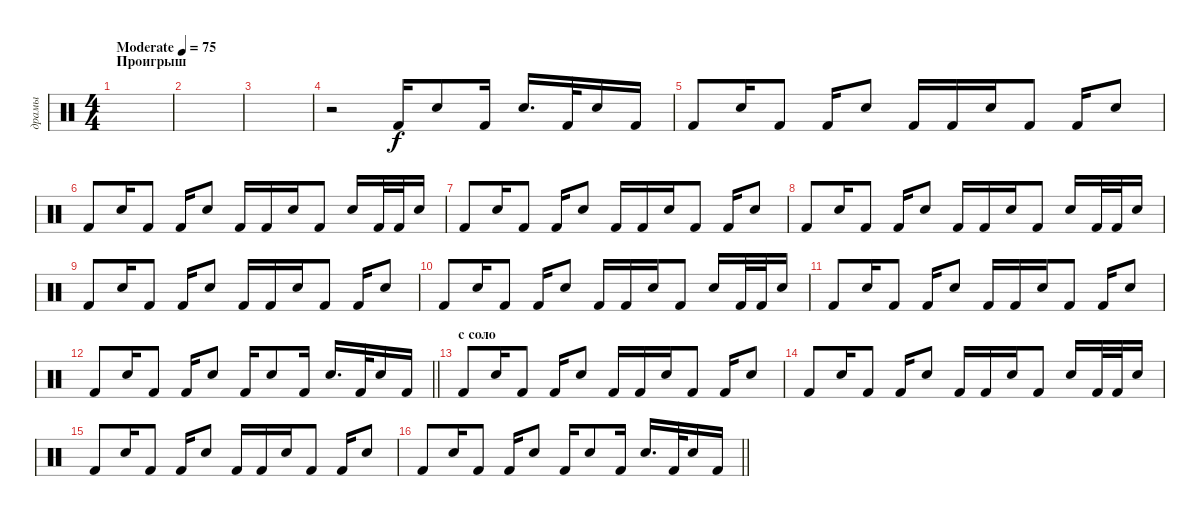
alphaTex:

\track ("драмы" "драмы") {instrument percussion}
\staff {score}
\articulation defaults
\ts (4 4)
\section ("" "Проигрыш")
\tempo (75 "Moderate")
\clef neutral
\ks c
|
|
|
r.2 "Kick (hit) 2".16 "Electric Snare (hit)".8 "Kick (hit) 2".16 "Electric Snare (hit)".16{d} "Kick (hit) 2".32 "Electric Snare (hit)".16 "Kick (hit) 2".16 |
"Kick (hit) 2".8 "Electric Snare (hit)".16 "Kick (hit) 2".8 "Kick (hit) 2".16 "Electric Snare (hit)".8 "Kick (hit) 2".16 "Kick (hit) 2".16 "Electric Snare (hit)".16 "Kick (hit) 2".8 "Kick (hit) 2".16 "Electric Snare (hit)".8 |
"Kick (hit) 2".8 "Electric Snare (hit)".16 "Kick (hit) 2".8 "Kick (hit) 2".16 "Electric Snare (hit)".8 "Kick (hit) 2".16 "Kick (hit) 2".16 "Electric Snare (hit)".16 "Kick (hit) 2".8 "Electric Snare (hit)".16 "Kick (hit) 2".32 "Kick (hit) 2".32 "Electric Snare (hit)".16 |
"Kick (hit) 2".8 "Electric Snare (hit)".16 "Kick (hit) 2".8 "Kick (hit) 2".16 "Electric Snare (hit)".8 "Kick (hit) 2".16 "Kick (hit) 2".16 "Electric Snare (hit)".16 "Kick (hit) 2".8 "Kick (hit) 2".16 "Electric Snare (hit)".8 |
"Kick (hit) 2".8 "Electric Snare (hit)".16 "Kick (hit) 2".8 "Kick (hit) 2".16 "Electric Snare (hit)".8 "Kick (hit) 2".16 "Kick (hit) 2".16 "Electric Snare (hit)".16 "Kick (hit) 2".8 "Electric Snare (hit)".16 "Kick (hit) 2".32 "Kick (hit) 2".32 "Electric Snare (hit)".16 |
"Kick (hit) 2".8 "Electric Snare (hit)".16 "Kick (hit) 2".8 "Kick (hit) 2".16 "Electric Snare (hit)".8 "Kick (hit) 2".16 "Kick (hit) 2".16 "Electric Snare (hit)".16 "Kick (hit) 2".8 "Kick (hit) 2".16 "Electric Snare (hit)".8 |
"Kick (hit) 2".8 "Electric Snare (hit)".16 "Kick (hit) 2".8 "Kick (hit) 2".16 "Electric Snare (hit)".8 "Kick (hit) 2".16 "Kick (hit) 2".16 "Electric Snare (hit)".16 "Kick (hit) 2".8 "Electric Snare (hit)".16 "Kick (hit) 2".32 "Kick (hit) 2".32 "Electric Snare (hit)".16 |
"Kick (hit) 2".8 "Electric Snare (hit)".16 "Kick (hit) 2".8 "Kick (hit) 2".16 "Electric Snare (hit)".8 "Kick (hit) 2".16 "Kick (hit) 2".16 "Electric Snare (hit)".16 "Kick (hit) 2".8 "Kick (hit) 2".16 "Electric Snare (hit)".8 |
\barLineRight lightlight "Kick (hit) 2".8 "Electric Snare (hit)".16 "Kick (hit) 2".8 "Kick (hit) 2".16 "Electric Snare (hit)".8 "Kick (hit) 2".16 "Electric Snare (hit)".8 "Kick (hit) 2".16 "Electric Snare (hit)".16{d} "Kick (hit) 2".32 "Electric Snare (hit)".16 "Kick (hit) 2".16
|
\section ("" "с соло")
"Kick (hit) 2".8 "Electric Snare (hit)".16 "Kick (hit) 2".8 "Kick (hit) 2".16 "Electric Snare (hit)".8 "Kick (hit) 2".16 "Kick (hit) 2".16 "Electric Snare (hit)".16 "Kick (hit) 2".8 "Kick (hit) 2".16 "Electric Snare (hit)".8 |
"Kick (hit) 2".8 "Electric Snare (hit)".16 "Kick (hit) 2".8 "Kick (hit) 2".16 "Electric Snare (hit)".8 "Kick (hit) 2".16 "Kick (hit) 2".16 "Electric Snare (hit)".16 "Kick (hit) 2".8 "Electric Snare (hit)".16 "Kick (hit) 2".32 "Kick (hit) 2".32 "Electric Snare (hit)".16 |
"Kick (hit) 2".8 "Electric Snare (hit)".16 "Kick (hit) 2".8 "Kick (hit) 2".16 "Electric Snare (hit)".8 "Kick (hit) 2".16 "Kick (hit) 2".16 "Electric Snare (hit)".16 "Kick (hit) 2".8 "Kick (hit) 2".16 "Electric Snare (hit)".8 |
\barLineRight lightlight "Kick (hit) 2".8 "Electric Snare (hit)".16 "Kick (hit) 2".8 "Kick (hit) 2".16 "Electric Snare (hit)".8 "Kick (hit) 2".16 "Electric Snare (hit)".8 "Kick (hit) 2".16 "Electric Snare (hit)".16{d} "Kick (hit) 2".32 "Electric Snare (hit)".16 "Kick (hit) 2".16
